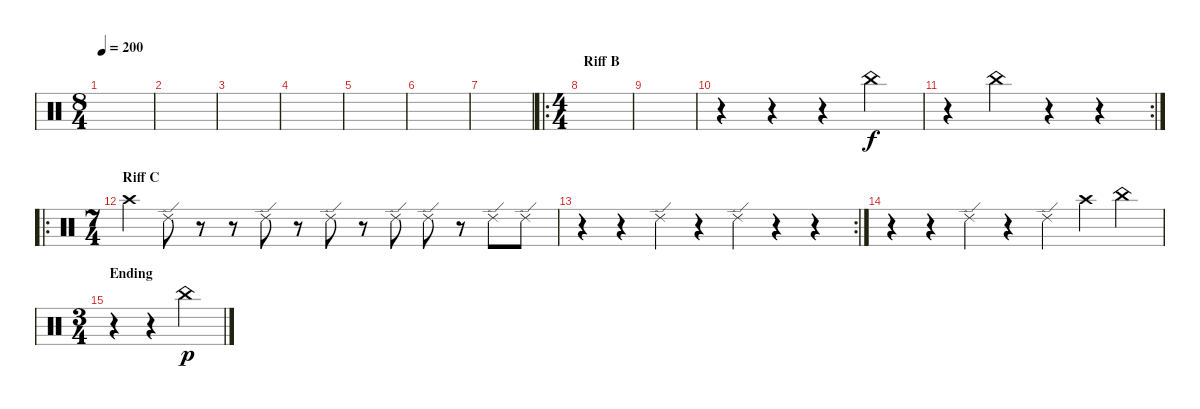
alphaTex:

\track "" {instrument percussion}
\staff {score}
\articulation defaults
\ts (8 4)
\tempo 200
\clef neutral
\ks c
|
|
|
|
|
|
|
\ro
\ts (4 4)
\section ("" "Riff B")
|
|
r.4 r.4 r.4 "China (hit)".4 |
\rc 2
r.4 "China (hit)".4 r.4 r.4 |
\ro
\ts (7 4)
\section ("" "Riff C")
"Crash high (hit)".4 "Ride (edge) 2".8 r.8 r.8 "Ride (edge) 2".8 r.8 "Ride (edge) 2".8 r.8 "Ride (edge) 2".8 "Ride (edge) 2".8 r.8 "Ride (edge) 2".8 "Ride (edge) 2".8 |
\rc 2
r.4 r.4 "Ride (edge) 2".4 r.4 "Ride (edge) 2".4 r.4 r.4 |
r.4 r.4 "Ride (edge) 2".4 r.4 "Ride (edge) 2".4 "Crash high (hit)".4 "China (hit)".4 |
\ts (3 4)
\section ("" "Ending")
r.4 r.4 "China (hit)".4{dy p}
